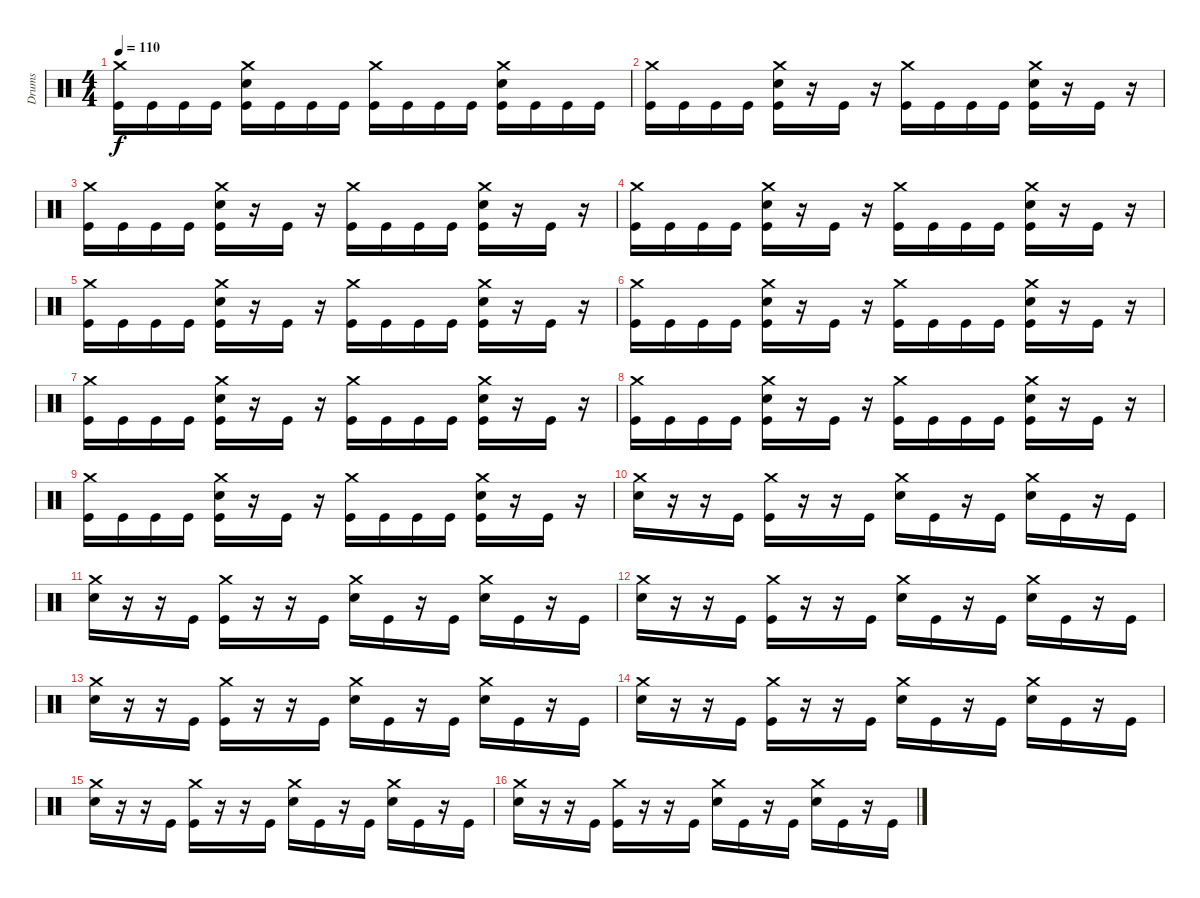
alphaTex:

\track ("Drums" "Drums") {instrument percussion}
\staff {score}
\articulation defaults
\ts (4 4)
\tempo 110
\clef neutral
\ks c
("Crash medium (hit)" "Kick (hit)").16{dy f} "Kick (hit)".16 "Kick (hit)".16 "Kick (hit)".16 ("Crash medium (hit)" "Electric Snare (hit)" "Kick (hit)").16 "Kick (hit)".16 "Kick (hit)".16 "Kick (hit)".16 ("Crash medium (hit)" "Kick (hit)").16 "Kick (hit)".16 "Kick (hit)".16 "Kick (hit)".16 ("Crash medium (hit)" "Electric Snare (hit)" "Kick (hit)").16 "Kick (hit)".16 "Kick (hit)".16 "Kick (hit)".16 |
("Crash medium (hit)" "Kick (hit)").16 "Kick (hit)".16 "Kick (hit)".16 "Kick (hit)".16 ("Crash medium (hit)" "Electric Snare (hit)" "Kick (hit)").16 r.16 "Kick (hit)".16 r.16 ("Crash medium (hit)" "Kick (hit)").16 "Kick (hit)".16 "Kick (hit)".16 "Kick (hit)".16 ("Crash medium (hit)" "Electric Snare (hit)" "Kick (hit)").16 r.16 "Kick (hit)".16 r.16 |
("Crash medium (hit)" "Kick (hit)").16 "Kick (hit)".16 "Kick (hit)".16 "Kick (hit)".16 ("Crash medium (hit)" "Electric Snare (hit)" "Kick (hit)").16 r.16 "Kick (hit)".16 r.16 ("Crash medium (hit)" "Kick (hit)").16 "Kick (hit)".16 "Kick (hit)".16 "Kick (hit)".16 ("Crash medium (hit)" "Electric Snare (hit)" "Kick (hit)").16 r.16 "Kick (hit)".16 r.16 |
("Crash medium (hit)" "Kick (hit)").16 "Kick (hit)".16 "Kick (hit)".16 "Kick (hit)".16 ("Crash medium (hit)" "Electric Snare (hit)" "Kick (hit)").16 r.16 "Kick (hit)".16 r.16 ("Crash medium (hit)" "Kick (hit)").16 "Kick (hit)".16 "Kick (hit)".16 "Kick (hit)".16 ("Crash medium (hit)" "Electric Snare (hit)" "Kick (hit)").16 r.16 "Kick (hit)".16 r.16 |
("Crash medium (hit)" "Kick (hit)").16 "Kick (hit)".16 "Kick (hit)".16 "Kick (hit)".16 ("Crash medium (hit)" "Electric Snare (hit)" "Kick (hit)").16 r.16 "Kick (hit)".16 r.16 ("Crash medium (hit)" "Kick (hit)").16 "Kick (hit)".16 "Kick (hit)".16 "Kick (hit)".16 ("Crash medium (hit)" "Electric Snare (hit)" "Kick (hit)").16 r.16 "Kick (hit)".16 r.16 |
("Crash medium (hit)" "Kick (hit)").16 "Kick (hit)".16 "Kick (hit)".16 "Kick (hit)".16 ("Crash medium (hit)" "Electric Snare (hit)" "Kick (hit)").16 r.16 "Kick (hit)".16 r.16 ("Crash medium (hit)" "Kick (hit)").16 "Kick (hit)".16 "Kick (hit)".16 "Kick (hit)".16 ("Crash medium (hit)" "Electric Snare (hit)" "Kick (hit)").16 r.16 "Kick (hit)".16 r.16 |
("Crash medium (hit)" "Kick (hit)").16 "Kick (hit)".16 "Kick (hit)".16 "Kick (hit)".16 ("Crash medium (hit)" "Electric Snare (hit)" "Kick (hit)").16 r.16 "Kick (hit)".16 r.16 ("Crash medium (hit)" "Kick (hit)").16 "Kick (hit)".16 "Kick (hit)".16 "Kick (hit)".16 ("Crash medium (hit)" "Electric Snare (hit)" "Kick (hit)").16 r.16 "Kick (hit)".16 r.16 |
("Crash medium (hit)" "Kick (hit)").16 "Kick (hit)".16 "Kick (hit)".16 "Kick (hit)".16 ("Crash medium (hit)" "Electric Snare (hit)" "Kick (hit)").16 r.16 "Kick (hit)".16 r.16 ("Crash medium (hit)" "Kick (hit)").16 "Kick (hit)".16 "Kick (hit)".16 "Kick (hit)".16 ("Crash medium (hit)" "Electric Snare (hit)" "Kick (hit)").16 r.16 "Kick (hit)".16 r.16 |
("Crash medium (hit)" "Kick (hit)").16 "Kick (hit)".16 "Kick (hit)".16 "Kick (hit)".16 ("Crash medium (hit)" "Electric Snare (hit)" "Kick (hit)").16 r.16 "Kick (hit)".16 r.16 ("Crash medium (hit)" "Kick (hit)").16 "Kick (hit)".16 "Kick (hit)".16 "Kick (hit)".16 ("Crash medium (hit)" "Electric Snare (hit)" "Kick (hit)").16 r.16 "Kick (hit)".16 r.16 |
("Crash medium (hit)" "Electric Snare (hit)").16 r.16 r.16 "Kick (hit)".16 ("Crash medium (hit)" "Kick (hit)").16 r.16 r.16 "Kick (hit)".16 ("Crash medium (hit)" "Electric Snare (hit)").16 "Kick (hit)".16 r.16 "Kick (hit)".16 ("Crash medium (hit)" "Electric Snare (hit)").16 "Kick (hit)".16 r.16 "Kick (hit)".16 |
("Crash medium (hit)" "Electric Snare (hit)").16 r.16 r.16 "Kick (hit)".16 ("Crash medium (hit)" "Kick (hit)").16 r.16 r.16 "Kick (hit)".16 ("Crash medium (hit)" "Electric Snare (hit)").16 "Kick (hit)".16 r.16 "Kick (hit)".16 ("Crash medium (hit)" "Electric Snare (hit)").16 "Kick (hit)".16 r.16 "Kick (hit)".16 |
("Crash medium (hit)" "Electric Snare (hit)").16 r.16 r.16 "Kick (hit)".16 ("Crash medium (hit)" "Kick (hit)").16 r.16 r.16 "Kick (hit)".16 ("Crash medium (hit)" "Electric Snare (hit)").16 "Kick (hit)".16 r.16 "Kick (hit)".16 ("Crash medium (hit)" "Electric Snare (hit)").16 "Kick (hit)".16 r.16 "Kick (hit)".16 |
("Crash medium (hit)" "Electric Snare (hit)").16 r.16 r.16 "Kick (hit)".16 ("Crash medium (hit)" "Kick (hit)").16 r.16 r.16 "Kick (hit)".16 ("Crash medium (hit)" "Electric Snare (hit)").16 "Kick (hit)".16 r.16 "Kick (hit)".16 ("Crash medium (hit)" "Electric Snare (hit)").16 "Kick (hit)".16 r.16 "Kick (hit)".16 |
("Crash medium (hit)" "Electric Snare (hit)").16 r.16 r.16 "Kick (hit)".16 ("Crash medium (hit)" "Kick (hit)").16 r.16 r.16 "Kick (hit)".16 ("Crash medium (hit)" "Electric Snare (hit)").16 "Kick (hit)".16 r.16 "Kick (hit)".16 ("Crash medium (hit)" "Electric Snare (hit)").16 "Kick (hit)".16 r.16 "Kick (hit)".16 |
("Crash medium (hit)" "Electric Snare (hit)").16 r.16 r.16 "Kick (hit)".16 ("Crash medium (hit)" "Kick (hit)").16 r.16 r.16 "Kick (hit)".16 ("Crash medium (hit)" "Electric Snare (hit)").16 "Kick (hit)".16 r.16 "Kick (hit)".16 ("Crash medium (hit)" "Electric Snare (hit)").16 "Kick (hit)".16 r.16 "Kick (hit)".16 |
("Crash medium (hit)" "Electric Snare (hit)").16 r.16 r.16 "Kick (hit)".16 ("Crash medium (hit)" "Kick (hit)").16 r.16 r.16 "Kick (hit)".16 ("Crash medium (hit)" "Electric Snare (hit)").16 "Kick (hit)".16 r.16 "Kick (hit)".16 ("Crash medium (hit)" "Electric Snare (hit)").16 "Kick (hit)".16 r.16 "Kick (hit)".16
